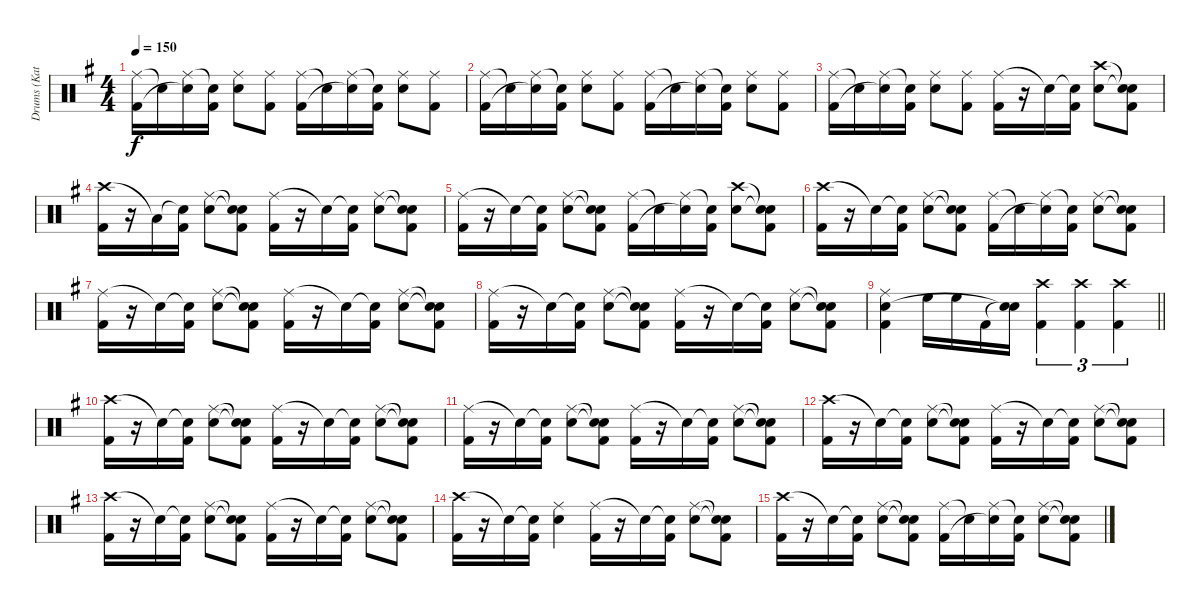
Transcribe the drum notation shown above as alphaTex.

\track ("Drums (Katsuji)" "Drums (Kat") {instrument percussion}
\staff {score}
\articulation defaults
\ts (4 4)
\tempo 150
\clef neutral
\ks g
("Ride (middle)" "Kick (hit) 2").16{dy f} "Snare (hit)"{t}.16 ("Ride (middle)" "Snare (hit)"{t}).16 ("Snare (hit)"{t} "Kick (hit) 2").16 ("Ride (middle)" "Snare (hit) 2").8 ("Ride (middle)" "Kick (hit) 2").8 ("Ride (middle)" "Kick (hit) 2").16 "Snare (hit)"{t}.16 ("Ride (middle)" "Snare (hit)"{t}).16 ("Snare (hit)"{t} "Kick (hit) 2").16 ("Ride (middle)" "Snare (hit) 2").8 ("Ride (middle)" "Kick (hit) 2").8 |
("Ride (middle)" "Kick (hit) 2").16 "Snare (hit)"{t}.16 ("Ride (middle)" "Snare (hit)"{t}).16 ("Snare (hit)"{t} "Kick (hit) 2").16 ("Ride (middle)" "Snare (hit) 2").8 ("Ride (middle)" "Kick (hit) 2").8 ("Ride (middle)" "Kick (hit) 2").16 "Snare (hit)"{t}.16 ("Ride (middle)" "Snare (hit)"{t}).16 ("Snare (hit)"{t} "Kick (hit) 2").16 ("Ride (middle)" "Snare (hit) 2").8 ("Ride (middle)" "Kick (hit) 2").8 |
("Ride (middle)" "Kick (hit) 2").16 "Snare (hit)"{t}.16 ("Ride (middle)" "Snare (hit)"{t}).16 ("Snare (hit)"{t} "Kick (hit) 2").16 ("Ride (middle)" "Snare (hit) 2").8 ("Ride (middle)" "Kick (hit) 2").8 ("Ride (middle)" "Kick (hit) 2").16 r.16 "Snare (hit)"{t}.16 ("Snare (hit)"{t} "Kick (hit) 2").16 ("Crash high (hit)" "Snare (hit) 2").8 ("Snare (hit)"{t} "Snare (hit)"{t} "Kick (hit) 2").8 |
("Crash high (hit)" "Kick (hit) 2").16 r.16 "Low Floor Tom (hit)"{t}.16 ("Snare (hit)"{t} "Kick (hit) 2").16 ("Ride (middle)" "Snare (hit) 2").8 ("Snare (hit)"{t} "Snare (hit)"{t} "Kick (hit) 2").8 ("Ride (middle)" "Kick (hit) 2").16 r.16 "Snare (hit)"{t}.16 ("Snare (hit)"{t} "Kick (hit) 2").16 ("Ride (middle)" "Snare (hit) 2").8 ("Snare (hit)"{t} "Snare (hit)"{t} "Kick (hit) 2").8 |
("Ride (middle)" "Kick (hit) 2").16 r.16 "Snare (hit)"{t}.16 ("Snare (hit)"{t} "Kick (hit) 2").16 ("Ride (middle)" "Snare (hit) 2").8 ("Snare (hit)"{t} "Snare (hit)"{t} "Kick (hit) 2").8 ("Ride (middle)" "Kick (hit) 2").16 "Snare (hit)"{t}.16 ("Ride (middle)" "Snare (hit)"{t}).16 ("Snare (hit)"{t} "Kick (hit) 2").16 ("Crash high (hit)" "Snare (hit) 2").8 ("Snare (hit)"{t} "Snare (hit)"{t} "Kick (hit) 2").8 |
("Crash high (hit)" "Kick (hit) 2").16 r.16 "Snare (hit)"{t}.16 ("Snare (hit)"{t} "Kick (hit) 2").16 ("Ride (middle)" "Snare (hit) 2").8 ("Snare (hit)"{t} "Snare (hit)"{t} "Kick (hit) 2").8 ("Ride (middle)" "Kick (hit) 2").16 "Snare (hit)"{t}.16 ("Ride (middle)" "Snare (hit)"{t}).16 ("Snare (hit)"{t} "Kick (hit) 2").16 ("Ride (middle)" "Snare (hit) 2").8 ("Snare (hit)"{t} "Snare (hit)"{t} "Kick (hit) 2").8 |
("Ride (middle)" "Kick (hit) 2").16 r.16 "Snare (hit)"{t}.16 ("Snare (hit)"{t} "Kick (hit) 2").16 ("Ride (middle)" "Snare (hit) 2").8 ("Snare (hit)"{t} "Snare (hit)"{t} "Kick (hit) 2").8 ("Ride (middle)" "Kick (hit) 2").16 r.16 "Snare (hit)"{t}.16 ("Snare (hit)"{t} "Kick (hit) 2").16 ("Ride (middle)" "Snare (hit) 2").8 ("Snare (hit)"{t} "Snare (hit)"{t} "Kick (hit) 2").8 |
("Ride (middle)" "Kick (hit) 2").16 r.16 "Snare (hit)"{t}.16 ("Snare (hit)"{t} "Kick (hit) 2").16 ("Ride (middle)" "Snare (hit) 2").8 ("Snare (hit)"{t} "Snare (hit)"{t} "Kick (hit) 2").8 ("Ride (middle)" "Kick (hit) 2").16 r.16 "Snare (hit)"{t}.16 ("Snare (hit)"{t} "Kick (hit) 2").16 ("Ride (middle)" "Snare (hit) 2").8 ("Snare (hit)"{t} "Snare (hit)"{t} "Kick (hit) 2").8 |
\barLineRight lightlight
("Ride (middle)" "Snare (hit) 2" "Kick (hit) 2").4 "High Floor Tom (hit)".16 "High Floor Tom (hit)".16 "Kick (hit) 2".16 ("Snare (hit)"{t} "Snare (hit)"{t}).16 ("Crash high (hit)" "Kick (hit) 2").4{tu (3 2)} ("Crash high (hit)" "Kick (hit) 2").4{tu (3 2)} ("Crash high (hit)" "Kick (hit) 2").4{tu (3 2)} |
("Crash high (hit)" "Kick (hit) 2").16 r.16 "Snare (hit)"{t}.16 ("Snare (hit)"{t} "Kick (hit) 2").16 ("Ride (middle)" "Snare (hit) 2").8 ("Snare (hit)"{t} "Snare (hit)"{t} "Kick (hit) 2").8 ("Ride (middle)" "Kick (hit) 2").16 r.16 "Snare (hit)"{t}.16 ("Snare (hit)"{t} "Kick (hit) 2").16 ("Ride (middle)" "Snare (hit) 2").8 ("Snare (hit)"{t} "Snare (hit)"{t} "Kick (hit) 2").8 |
("Ride (middle)" "Kick (hit) 2").16 r.16 "Snare (hit)"{t}.16 ("Snare (hit)"{t} "Kick (hit) 2").16 ("Ride (middle)" "Snare (hit) 2").8 ("Snare (hit)"{t} "Snare (hit)"{t} "Kick (hit) 2").8 ("Ride (middle)" "Kick (hit) 2").16 r.16 "Snare (hit)"{t}.16 ("Snare (hit)"{t} "Kick (hit) 2").16 ("Ride (middle)" "Snare (hit) 2").8 ("Snare (hit)"{t} "Snare (hit)"{t} "Kick (hit) 2").8 |
("Crash high (hit)" "Kick (hit) 2").16 r.16 "Snare (hit)"{t}.16 ("Snare (hit)"{t} "Kick (hit) 2").16 ("Ride (middle)" "Snare (hit) 2").8 ("Snare (hit)"{t} "Snare (hit)"{t} "Kick (hit) 2").8 ("Ride (middle)" "Kick (hit) 2").16 r.16 "Snare (hit)"{t}.16 ("Snare (hit)"{t} "Kick (hit) 2").16 ("Ride (middle)" "Snare (hit) 2").8 ("Snare (hit)"{t} "Snare (hit)"{t} "Kick (hit) 2").8 |
("Crash high (hit)" "Kick (hit) 2").16 r.16 "Snare (hit)"{t}.16 ("Snare (hit)"{t} "Kick (hit) 2").16 ("Ride (middle)" "Snare (hit) 2").8 ("Snare (hit)"{t} "Snare (hit)"{t} "Kick (hit) 2").8 ("Ride (middle)" "Kick (hit) 2").16 r.16 "Snare (hit)"{t}.16 ("Snare (hit)"{t} "Kick (hit) 2").16 ("Ride (middle)" "Snare (hit) 2").8 ("Snare (hit)"{t} "Snare (hit)"{t} "Kick (hit) 2").8 |
("Crash high (hit)" "Kick (hit) 2").16 r.16 "Snare (hit)"{t}.16 ("Snare (hit)"{t} "Kick (hit) 2").16 ("Ride (middle)" "Snare (hit) 2").4 ("Ride (middle)" "Kick (hit) 2").16 r.16 "Snare (hit)"{t}.16 ("Snare (hit)"{t} "Kick (hit) 2").16 ("Ride (middle)" "Snare (hit) 2").8 ("Snare (hit)"{t} "Snare (hit)"{t} "Kick (hit) 2").8 |
("Crash high (hit)" "Kick (hit) 2").16 r.16 "Snare (hit)"{t}.16 ("Snare (hit)"{t} "Kick (hit) 2").16 ("Ride (middle)" "Snare (hit) 2").8 ("Snare (hit)"{t} "Snare (hit)"{t} "Kick (hit) 2").8 ("Ride (middle)" "Kick (hit) 2").16 "Snare (hit)"{t}.16 ("Ride (middle)" "Snare (hit)"{t}).16 ("Snare (hit)"{t} "Kick (hit) 2").16 ("Ride (middle)" "Snare (hit) 2").8 ("Snare (hit)"{t} "Snare (hit)"{t} "Kick (hit) 2").8
